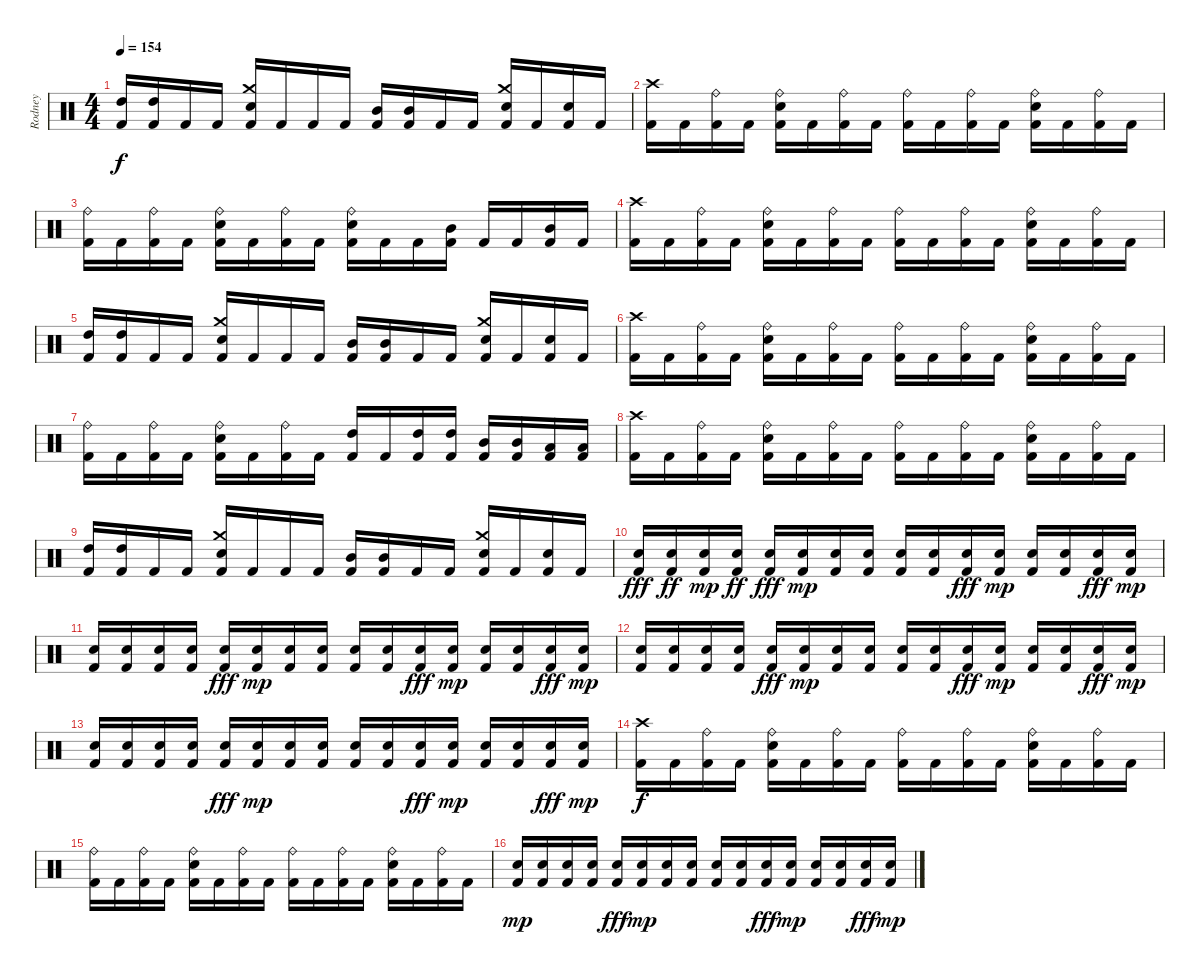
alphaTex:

\track ("Rodney" "Rodney") {instrument percussion}
\staff {score}
\articulation defaults
\ts (4 4)
\tempo 154
\clef neutral
\ks c
("High Tom (hit)" "Kick (hit) 2").16{dy f} ("High Tom (hit)" "Kick (hit) 2").16 "Kick (hit) 2".16 "Kick (hit) 2".16 ("Crash medium (hit)" "Snare (hit) 2" "Kick (hit) 2").16 "Kick (hit) 2".16 "Kick (hit) 2".16 "Kick (hit) 2".16 ("Mid Tom (hit)" "Kick (hit) 2").16 ("Mid Tom (hit)" "Kick (hit) 2").16 "Kick (hit) 2".16 "Kick (hit) 2".16 ("Crash medium (hit)" "Snare (hit) 2" "Kick (hit) 2").16 "Kick (hit) 2".16 ("Snare (hit) 2" "Kick (hit) 2").16 "Kick (hit) 2".16 |
("Crash high (hit)" "Kick (hit) 2").16 "Kick (hit) 2".16 ("Ride (bell)" "Kick (hit) 2").16 "Kick (hit) 2".16 ("Ride (bell)" "Snare (hit) 2" "Kick (hit) 2").16 "Kick (hit) 2".16 ("Ride (bell)" "Kick (hit) 2").16 "Kick (hit) 2".16 ("Ride (bell)" "Kick (hit) 2").16 "Kick (hit) 2".16 ("Ride (bell)" "Kick (hit) 2").16 "Kick (hit) 2".16 ("Ride (bell)" "Snare (hit) 2" "Kick (hit) 2").16 "Kick (hit) 2".16 ("Ride (bell)" "Kick (hit) 2").16 "Kick (hit) 2".16 |
("Ride (bell)" "Kick (hit) 2").16 "Kick (hit) 2".16 ("Ride (bell)" "Kick (hit) 2").16 "Kick (hit) 2".16 ("Ride (bell)" "Snare (hit) 2" "Kick (hit) 2").16 "Kick (hit) 2".16 ("Ride (bell)" "Kick (hit) 2").16 "Kick (hit) 2".16 ("Ride (bell)" "Snare (hit) 2" "Kick (hit) 2").16 "Kick (hit) 2".16 "Kick (hit) 2".16 ("Mid Tom (hit)" "Kick (hit) 2").16 "Kick (hit) 2".16 "Kick (hit) 2".16 ("Mid Tom (hit)" "Kick (hit) 2").16 "Kick (hit) 2".16 |
("Crash high (hit)" "Kick (hit) 2").16 "Kick (hit) 2".16 ("Ride (bell)" "Kick (hit) 2").16 "Kick (hit) 2".16 ("Ride (bell)" "Snare (hit) 2" "Kick (hit) 2").16 "Kick (hit) 2".16 ("Ride (bell)" "Kick (hit) 2").16 "Kick (hit) 2".16 ("Ride (bell)" "Kick (hit) 2").16 "Kick (hit) 2".16 ("Ride (bell)" "Kick (hit) 2").16 "Kick (hit) 2".16 ("Ride (bell)" "Snare (hit) 2" "Kick (hit) 2").16 "Kick (hit) 2".16 ("Ride (bell)" "Kick (hit) 2").16 "Kick (hit) 2".16 |
("High Tom (hit)" "Kick (hit) 2").16 ("High Tom (hit)" "Kick (hit) 2").16 "Kick (hit) 2".16 "Kick (hit) 2".16 ("Crash medium (hit)" "Snare (hit) 2" "Kick (hit) 2").16 "Kick (hit) 2".16 "Kick (hit) 2".16 "Kick (hit) 2".16 ("Mid Tom (hit)" "Kick (hit) 2").16 ("Mid Tom (hit)" "Kick (hit) 2").16 "Kick (hit) 2".16 "Kick (hit) 2".16 ("Crash medium (hit)" "Snare (hit) 2" "Kick (hit) 2").16 "Kick (hit) 2".16 ("Snare (hit) 2" "Kick (hit) 2").16 "Kick (hit) 2".16 |
("Crash high (hit)" "Kick (hit) 2").16 "Kick (hit) 2".16 ("Ride (bell)" "Kick (hit) 2").16 "Kick (hit) 2".16 ("Ride (bell)" "Snare (hit) 2" "Kick (hit) 2").16 "Kick (hit) 2".16 ("Ride (bell)" "Kick (hit) 2").16 "Kick (hit) 2".16 ("Ride (bell)" "Kick (hit) 2").16 "Kick (hit) 2".16 ("Ride (bell)" "Kick (hit) 2").16 "Kick (hit) 2".16 ("Ride (bell)" "Snare (hit) 2" "Kick (hit) 2").16 "Kick (hit) 2".16 ("Ride (bell)" "Kick (hit) 2").16 "Kick (hit) 2".16 |
("Ride (bell)" "Kick (hit) 2").16 "Kick (hit) 2".16 ("Ride (bell)" "Kick (hit) 2").16 "Kick (hit) 2".16 ("Ride (bell)" "Snare (hit) 2" "Kick (hit) 2").16 "Kick (hit) 2".16 ("Ride (bell)" "Kick (hit) 2").16 "Kick (hit) 2".16 ("High Tom (hit)" "Kick (hit) 2").16 "Kick (hit) 2".16 ("High Tom (hit)" "Kick (hit) 2").16 ("High Tom (hit)" "Kick (hit) 2").16 ("Mid Tom (hit)" "Kick (hit) 2").16 ("Mid Tom (hit)" "Kick (hit) 2").16 ("Low Tom (hit)" "Kick (hit) 2").16 ("Low Tom (hit)" "Kick (hit) 2").16 |
("Crash high (hit)" "Kick (hit) 2").16 "Kick (hit) 2".16 ("Ride (bell)" "Kick (hit) 2").16 "Kick (hit) 2".16 ("Ride (bell)" "Snare (hit) 2" "Kick (hit) 2").16 "Kick (hit) 2".16 ("Ride (bell)" "Kick (hit) 2").16 "Kick (hit) 2".16 ("Ride (bell)" "Kick (hit) 2").16 "Kick (hit) 2".16 ("Ride (bell)" "Kick (hit) 2").16 "Kick (hit) 2".16 ("Ride (bell)" "Snare (hit) 2" "Kick (hit) 2").16 "Kick (hit) 2".16 ("Ride (bell)" "Kick (hit) 2").16 "Kick (hit) 2".16 |
("High Tom (hit)" "Kick (hit) 2").16 ("High Tom (hit)" "Kick (hit) 2").16 "Kick (hit) 2".16 "Kick (hit) 2".16 ("Crash medium (hit)" "Snare (hit) 2" "Kick (hit) 2").16 "Kick (hit) 2".16 "Kick (hit) 2".16 "Kick (hit) 2".16 ("Mid Tom (hit)" "Kick (hit) 2").16 ("Mid Tom (hit)" "Kick (hit) 2").16 "Kick (hit) 2".16 "Kick (hit) 2".16 ("Crash medium (hit)" "Snare (hit) 2" "Kick (hit) 2").16 "Kick (hit) 2".16 ("Snare (hit) 2" "Kick (hit) 2").16 "Kick (hit) 2".16 |
("Snare (hit) 2" "Kick (hit) 2").16{dy fff} ("Snare (hit) 2" "Kick (hit) 2").16{dy ff} ("Snare (hit) 2" "Kick (hit) 2").16{dy mp} ("Snare (hit) 2" "Kick (hit) 2").16{dy ff} ("Snare (hit) 2" "Kick (hit) 2").16{dy fff} ("Snare (hit) 2" "Kick (hit) 2").16{dy mp} ("Snare (hit) 2" "Kick (hit) 2").16 ("Snare (hit) 2" "Kick (hit) 2").16 ("Snare (hit) 2" "Kick (hit) 2").16 ("Snare (hit) 2" "Kick (hit) 2").16 ("Snare (hit) 2" "Kick (hit) 2").16{dy fff} ("Snare (hit) 2" "Kick (hit) 2").16{dy mp} ("Snare (hit) 2" "Kick (hit) 2").16 ("Snare (hit) 2" "Kick (hit) 2").16 ("Snare (hit) 2" "Kick (hit) 2").16{dy fff} ("Snare (hit) 2" "Kick (hit) 2").16{dy mp} |
("Snare (hit) 2" "Kick (hit) 2").16 ("Snare (hit) 2" "Kick (hit) 2").16 ("Snare (hit) 2" "Kick (hit) 2").16 ("Snare (hit) 2" "Kick (hit) 2").16 ("Snare (hit) 2" "Kick (hit) 2").16{dy fff} ("Snare (hit) 2" "Kick (hit) 2").16{dy mp} ("Snare (hit) 2" "Kick (hit) 2").16 ("Snare (hit) 2" "Kick (hit) 2").16 ("Snare (hit) 2" "Kick (hit) 2").16 ("Snare (hit) 2" "Kick (hit) 2").16 ("Snare (hit) 2" "Kick (hit) 2").16{dy fff} ("Snare (hit) 2" "Kick (hit) 2").16{dy mp} ("Snare (hit) 2" "Kick (hit) 2").16 ("Snare (hit) 2" "Kick (hit) 2").16 ("Snare (hit) 2" "Kick (hit) 2").16{dy fff} ("Snare (hit) 2" "Kick (hit) 2").16{dy mp} |
("Snare (hit) 2" "Kick (hit) 2").16 ("Snare (hit) 2" "Kick (hit) 2").16 ("Snare (hit) 2" "Kick (hit) 2").16 ("Snare (hit) 2" "Kick (hit) 2").16 ("Snare (hit) 2" "Kick (hit) 2").16{dy fff} ("Snare (hit) 2" "Kick (hit) 2").16{dy mp} ("Snare (hit) 2" "Kick (hit) 2").16 ("Snare (hit) 2" "Kick (hit) 2").16 ("Snare (hit) 2" "Kick (hit) 2").16 ("Snare (hit) 2" "Kick (hit) 2").16 ("Snare (hit) 2" "Kick (hit) 2").16{dy fff} ("Snare (hit) 2" "Kick (hit) 2").16{dy mp} ("Snare (hit) 2" "Kick (hit) 2").16 ("Snare (hit) 2" "Kick (hit) 2").16 ("Snare (hit) 2" "Kick (hit) 2").16{dy fff} ("Snare (hit) 2" "Kick (hit) 2").16{dy mp} |
("Snare (hit) 2" "Kick (hit) 2").16 ("Snare (hit) 2" "Kick (hit) 2").16 ("Snare (hit) 2" "Kick (hit) 2").16 ("Snare (hit) 2" "Kick (hit) 2").16 ("Snare (hit) 2" "Kick (hit) 2").16{dy fff} ("Snare (hit) 2" "Kick (hit) 2").16{dy mp} ("Snare (hit) 2" "Kick (hit) 2").16 ("Snare (hit) 2" "Kick (hit) 2").16 ("Snare (hit) 2" "Kick (hit) 2").16 ("Snare (hit) 2" "Kick (hit) 2").16 ("Snare (hit) 2" "Kick (hit) 2").16{dy fff} ("Snare (hit) 2" "Kick (hit) 2").16{dy mp} ("Snare (hit) 2" "Kick (hit) 2").16 ("Snare (hit) 2" "Kick (hit) 2").16 ("Snare (hit) 2" "Kick (hit) 2").16{dy fff} ("Snare (hit) 2" "Kick (hit) 2").16{dy mp} |
("Crash high (hit)" "Kick (hit) 2").16{dy f} "Kick (hit) 2".16 ("Ride (bell)" "Kick (hit) 2").16 "Kick (hit) 2".16 ("Ride (bell)" "Snare (hit) 2" "Kick (hit) 2").16 "Kick (hit) 2".16 ("Ride (bell)" "Kick (hit) 2").16 "Kick (hit) 2".16 ("Ride (bell)" "Kick (hit) 2").16 "Kick (hit) 2".16 ("Ride (bell)" "Kick (hit) 2").16 "Kick (hit) 2".16 ("Ride (bell)" "Snare (hit) 2" "Kick (hit) 2").16 "Kick (hit) 2".16 ("Ride (bell)" "Kick (hit) 2").16 "Kick (hit) 2".16 |
("Ride (bell)" "Kick (hit) 2").16 "Kick (hit) 2".16 ("Ride (bell)" "Kick (hit) 2").16 "Kick (hit) 2".16 ("Ride (bell)" "Snare (hit) 2" "Kick (hit) 2").16 "Kick (hit) 2".16 ("Ride (bell)" "Kick (hit) 2").16 "Kick (hit) 2".16 ("Ride (bell)" "Kick (hit) 2").16 "Kick (hit) 2".16 ("Ride (bell)" "Kick (hit) 2").16 "Kick (hit) 2".16 ("Ride (bell)" "Snare (hit) 2" "Kick (hit) 2").16 "Kick (hit) 2".16 ("Ride (bell)" "Kick (hit) 2").16 "Kick (hit) 2".16 |
("Snare (hit) 2" "Kick (hit) 2").16{dy mp} ("Snare (hit) 2" "Kick (hit) 2").16 ("Snare (hit) 2" "Kick (hit) 2").16 ("Snare (hit) 2" "Kick (hit) 2").16 ("Snare (hit) 2" "Kick (hit) 2").16{dy fff} ("Snare (hit) 2" "Kick (hit) 2").16{dy mp} ("Snare (hit) 2" "Kick (hit) 2").16 ("Snare (hit) 2" "Kick (hit) 2").16 ("Snare (hit) 2" "Kick (hit) 2").16 ("Snare (hit) 2" "Kick (hit) 2").16 ("Snare (hit) 2" "Kick (hit) 2").16{dy fff} ("Snare (hit) 2" "Kick (hit) 2").16{dy mp} ("Snare (hit) 2" "Kick (hit) 2").16 ("Snare (hit) 2" "Kick (hit) 2").16 ("Snare (hit) 2" "Kick (hit) 2").16{dy fff} ("Snare (hit) 2" "Kick (hit) 2").16{dy mp}
